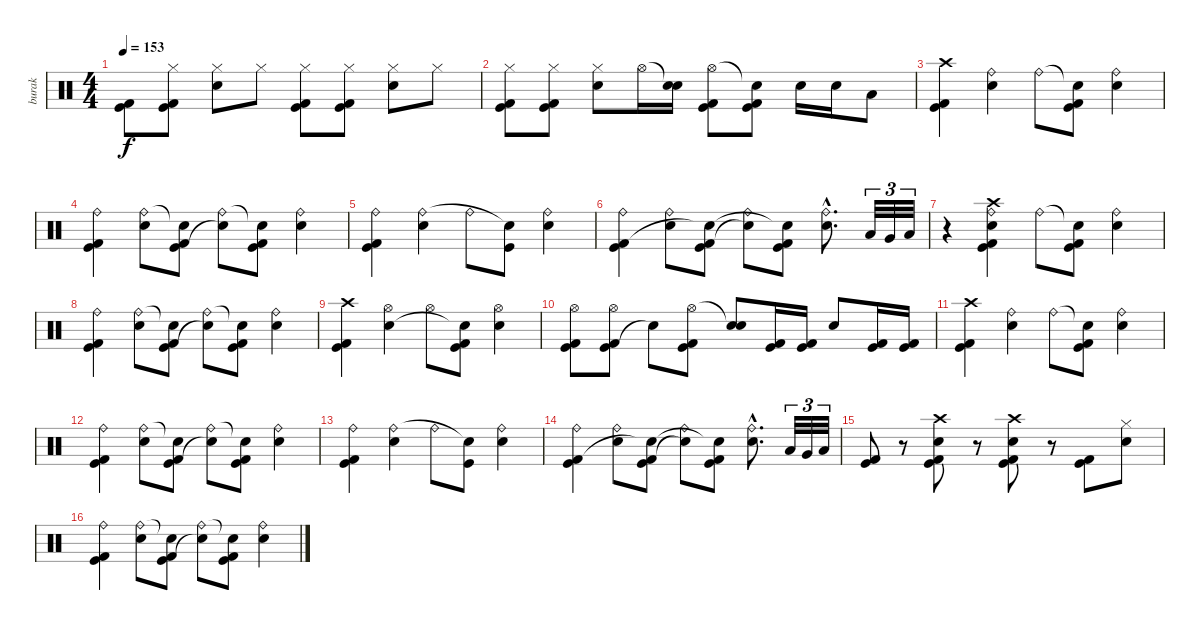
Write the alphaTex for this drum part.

\track ("burak" "burak") {instrument percussion}
\staff {score}
\articulation defaults
\ts (4 4)
\tempo 153
\clef neutral
\ks c
("Kick (hit)" "Kick (hit) 2").8{dy f} ("Hi-Hat (closed)" "Kick (hit)" "Kick (hit) 2").8 ("Hi-Hat (closed)" "Electric Snare (hit)").8 "Hi-Hat (closed)".8 ("Hi-Hat (closed)" "Kick (hit)" "Kick (hit) 2").8 ("Hi-Hat (closed)" "Kick (hit)" "Kick (hit) 2").8 ("Hi-Hat (closed)" "Electric Snare (hit)").8 "Hi-Hat (closed)".8 |
("Hi-Hat (closed)" "Kick (hit)" "Kick (hit) 2").8 ("Hi-Hat (closed)" "Kick (hit)" "Kick (hit) 2").8 ("Hi-Hat (closed)" "Electric Snare (hit)").8 "Hi-Hat (open)".16 ("Snare (hit)"{t} "Electric Snare (hit)").16 ("Kick (hit)" "Hi-Hat (open)" "Kick (hit) 2").8 ("Kick (hit)" "Snare (hit)"{t} "Kick (hit) 2").8 "Electric Snare (hit)".16 "Electric Snare (hit)".16 "Low Tom (hit)".8 |
("Kick (hit)" "Kick (hit) 2" "Crash high (hit)").4 ("Electric Snare (hit)" "Ride (bell)").4 "Ride (bell)".8 ("Snare (hit)"{t} "Kick (hit) 2" "Kick (hit)").8 ("Electric Snare (hit)" "Ride (bell)").4 |
("Kick (hit) 2" "Kick (hit)" "Ride (bell)").4 ("Electric Snare (hit)" "Ride (bell)").8 ("Kick (hit)" "Snare (hit)"{t} "Kick (hit) 2").8 ("Snare (hit)"{t} "Ride (bell)").8 ("Kick (hit)" "Snare (hit)"{t} "Kick (hit) 2").8 ("Electric Snare (hit)" "Ride (bell)").4 |
("Kick (hit)" "Ride (bell)" "Kick (hit) 2").4 ("Electric Snare (hit)" "Ride (bell)").4 "Ride (bell)".8 ("Kick (hit)" "Snare (hit)"{t}).8 ("Electric Snare (hit)" "Ride (bell)").4 |
("Kick (hit)" "Ride (bell)" "Kick (hit) 2").4 ("Electric Snare (hit)" "Ride (bell)").8 ("Kick (hit) 2" "Kick (hit)" "Snare (hit)"{t}).8 ("Snare (hit)"{t} "Ride (bell)").8 ("Kick (hit)" "Kick (hit) 2" "Snare (hit)"{t}).8 ("Electric Snare (hit)"{hac} "Ride (bell)"{hac}).8{d} "Low Tom (hit)".32{tu (3 2)} "Very Low Tom (hit)".32{tu (3 2)} "Low Floor Tom (hit)".32{tu (3 2)} |
r.4 ("Electric Snare (hit)" "Ride (bell)" "Crash high (hit)" "Kick (hit) 2" "Kick (hit)").4 "Ride (bell)".8 ("Snare (hit)"{t} "Kick (hit) 2" "Kick (hit)").8 ("Electric Snare (hit)" "Ride (bell)").4 |
("Kick (hit) 2" "Kick (hit)" "Ride (bell)").4 ("Electric Snare (hit)" "Ride (bell)").8 ("Kick (hit)" "Snare (hit)"{t} "Kick (hit) 2").8 ("Snare (hit)"{t} "Ride (bell)").8 ("Kick (hit)" "Snare (hit)"{t} "Kick (hit) 2").8 ("Electric Snare (hit)" "Ride (bell)").4 |
("Kick (hit)" "Crash high (hit)" "Kick (hit) 2").4 ("Hi-Hat (open)" "Electric Snare (hit)").4 "Hi-Hat (open)".8 ("Kick (hit)" "Snare (hit)"{t} "Kick (hit) 2").8 ("Hi-Hat (open)" "Electric Snare (hit)").4 |
("Kick (hit) 2" "Hi-Hat (open)" "Kick (hit)").8 ("Kick (hit)" "Hi-Hat (open)" "Kick (hit) 2").8 "Snare (hit)"{t}.8 ("Kick (hit)" "Hi-Hat (open)" "Kick (hit) 2").8 ("Electric Snare (hit)" "Snare (hit)"{t}).8 ("Kick (hit)" "Kick (hit) 2").16 ("Kick (hit)" "Kick (hit) 2").16 "Electric Snare (hit)".8 ("Kick (hit) 2" "Kick (hit)").16 ("Kick (hit) 2" "Kick (hit)").16 |
("Kick (hit)" "Kick (hit) 2" "Crash high (hit)").4 ("Electric Snare (hit)" "Ride (bell)").4 "Ride (bell)".8 ("Snare (hit)"{t} "Kick (hit) 2" "Kick (hit)").8 ("Electric Snare (hit)" "Ride (bell)").4 |
("Kick (hit) 2" "Kick (hit)" "Ride (bell)").4 ("Electric Snare (hit)" "Ride (bell)").8 ("Kick (hit)" "Snare (hit)"{t} "Kick (hit) 2").8 ("Snare (hit)"{t} "Ride (bell)").8 ("Kick (hit)" "Snare (hit)"{t} "Kick (hit) 2").8 ("Electric Snare (hit)" "Ride (bell)").4 |
("Kick (hit)" "Ride (bell)" "Kick (hit) 2").4 ("Electric Snare (hit)" "Ride (bell)").4 "Ride (bell)".8 ("Kick (hit)" "Snare (hit)"{t}).8 ("Electric Snare (hit)" "Ride (bell)").4 |
("Kick (hit)" "Ride (bell)" "Kick (hit) 2").4 ("Electric Snare (hit)" "Ride (bell)").8 ("Kick (hit) 2" "Kick (hit)" "Snare (hit)"{t}).8 ("Snare (hit)"{t} "Ride (bell)").8 ("Kick (hit)" "Kick (hit) 2" "Snare (hit)"{t}).8 ("Electric Snare (hit)"{hac} "Ride (bell)"{hac}).8{d} "Low Tom (hit)".32{tu (3 2)} "Very Low Tom (hit)".32{tu (3 2)} "Low Floor Tom (hit)".32{tu (3 2)} |
("Kick (hit)" "Kick (hit) 2").8 r.8 ("Electric Snare (hit)" "Crash high (hit)" "Kick (hit)" "Kick (hit) 2").8 r.8 ("Crash high (hit)" "Electric Snare (hit)" "Kick (hit)" "Kick (hit) 2").8 r.8 ("Kick (hit)" "Kick (hit) 2").8 ("Hi-Hat (closed)" "Electric Snare (hit)").8 |
("Kick (hit) 2" "Kick (hit)" "Ride (bell)").4 ("Electric Snare (hit)" "Ride (bell)").8 ("Kick (hit)" "Snare (hit)"{t} "Kick (hit) 2").8 ("Snare (hit)"{t} "Ride (bell)").8 ("Kick (hit)" "Snare (hit)"{t} "Kick (hit) 2").8 ("Electric Snare (hit)" "Ride (bell)").4
